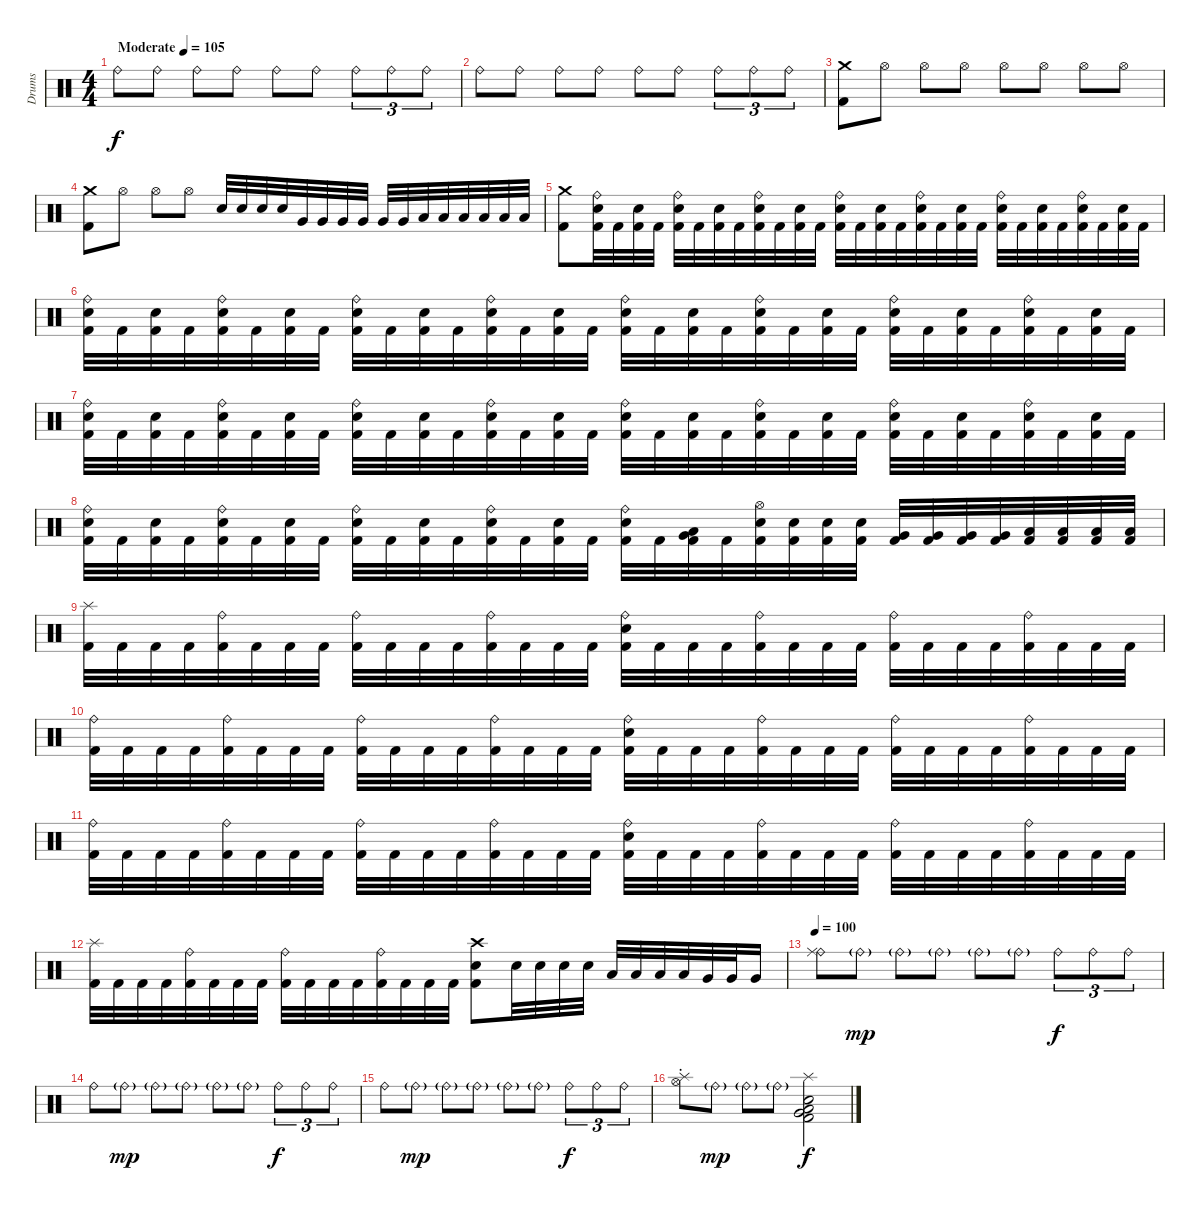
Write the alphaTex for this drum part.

\track ("Drums" "Drums") {instrument percussion}
\staff {score}
\articulation defaults
\ts (4 4)
\tempo (105 "Moderate")
\clef neutral
\ks c "Ride (bell)".8{dy f} "Ride (bell)".8 "Ride (bell)".8 "Ride (bell)".8 "Ride (bell)".8 "Ride (bell)".8 "Ride (bell)".8{tu (3 2)} "Ride (bell)".8{tu (3 2)} "Ride (bell)".8{tu (3 2)}
|
"Ride (bell)".8 "Ride (bell)".8 "Ride (bell)".8 "Ride (bell)".8 "Ride (bell)".8 "Ride (bell)".8 "Ride (bell)".8{tu (3 2)} "Ride (bell)".8{tu (3 2)} "Ride (bell)".8{tu (3 2)} |
("Crash medium (hit)" "Kick (hit) 2").8 "Hi-Hat (open)".8 "Hi-Hat (open)".8 "Hi-Hat (open)".8 "Hi-Hat (open)".8 "Hi-Hat (open)".8 "Hi-Hat (open)".8 "Hi-Hat (open)".8 |
("Crash medium (hit)" "Kick (hit) 2").8 "Hi-Hat (open)".8 "Hi-Hat (open)".8 "Hi-Hat (open)".8 "Electric Snare (hit)".32 "Electric Snare (hit)".32 "Electric Snare (hit)".32 "Electric Snare (hit)".32 "Very Low Tom (hit)".32 "Very Low Tom (hit)".32 "Very Low Tom (hit)".32 "Very Low Tom (hit)".32 "Very Low Tom (hit)".32 "Very Low Tom (hit)".32 "Low Floor Tom (hit)".32 "Low Floor Tom (hit)".32 "Low Floor Tom (hit)".32 "Low Floor Tom (hit)".32 "Low Floor Tom (hit)".32 "Low Floor Tom (hit)".32 |
("Crash medium (hit)" "Kick (hit) 2").8 ("Ride (bell)" "Electric Snare (hit)" "Kick (hit) 2").32 "Kick (hit) 2".32 ("Electric Snare (hit)" "Kick (hit) 2").32 "Kick (hit) 2".32 ("Ride (bell)" "Electric Snare (hit)" "Kick (hit) 2").32 "Kick (hit) 2".32 ("Electric Snare (hit)" "Kick (hit) 2").32 "Kick (hit) 2".32 ("Ride (bell)" "Electric Snare (hit)" "Kick (hit) 2").32 "Kick (hit) 2".32 ("Electric Snare (hit)" "Kick (hit) 2").32 "Kick (hit) 2".32 ("Ride (bell)" "Electric Snare (hit)" "Kick (hit) 2").32 "Kick (hit) 2".32 ("Electric Snare (hit)" "Kick (hit) 2").32 "Kick (hit) 2".32 ("Ride (bell)" "Electric Snare (hit)" "Kick (hit) 2").32 "Kick (hit) 2".32 ("Electric Snare (hit)" "Kick (hit) 2").32 "Kick (hit) 2".32 ("Ride (bell)" "Electric Snare (hit)" "Kick (hit) 2").32 "Kick (hit) 2".32 ("Electric Snare (hit)" "Kick (hit) 2").32 "Kick (hit) 2".32 ("Ride (bell)" "Electric Snare (hit)" "Kick (hit) 2").32 "Kick (hit) 2".32 ("Electric Snare (hit)" "Kick (hit) 2").32 "Kick (hit) 2".32 |
("Ride (bell)" "Electric Snare (hit)" "Kick (hit) 2").32 "Kick (hit) 2".32 ("Electric Snare (hit)" "Kick (hit) 2").32 "Kick (hit) 2".32 ("Ride (bell)" "Electric Snare (hit)" "Kick (hit) 2").32 "Kick (hit) 2".32 ("Electric Snare (hit)" "Kick (hit) 2").32 "Kick (hit) 2".32 ("Ride (bell)" "Electric Snare (hit)" "Kick (hit) 2").32 "Kick (hit) 2".32 ("Electric Snare (hit)" "Kick (hit) 2").32 "Kick (hit) 2".32 ("Ride (bell)" "Electric Snare (hit)" "Kick (hit) 2").32 "Kick (hit) 2".32 ("Electric Snare (hit)" "Kick (hit) 2").32 "Kick (hit) 2".32 ("Ride (bell)" "Electric Snare (hit)" "Kick (hit) 2").32 "Kick (hit) 2".32 ("Electric Snare (hit)" "Kick (hit) 2").32 "Kick (hit) 2".32 ("Ride (bell)" "Electric Snare (hit)" "Kick (hit) 2").32 "Kick (hit) 2".32 ("Electric Snare (hit)" "Kick (hit) 2").32 "Kick (hit) 2".32 ("Ride (bell)" "Electric Snare (hit)" "Kick (hit) 2").32 "Kick (hit) 2".32 ("Electric Snare (hit)" "Kick (hit) 2").32 "Kick (hit) 2".32 ("Ride (bell)" "Electric Snare (hit)" "Kick (hit) 2").32 "Kick (hit) 2".32 ("Electric Snare (hit)" "Kick (hit) 2").32 "Kick (hit) 2".32 |
("Ride (bell)" "Electric Snare (hit)" "Kick (hit) 2").32 "Kick (hit) 2".32 ("Electric Snare (hit)" "Kick (hit) 2").32 "Kick (hit) 2".32 ("Ride (bell)" "Electric Snare (hit)" "Kick (hit) 2").32 "Kick (hit) 2".32 ("Electric Snare (hit)" "Kick (hit) 2").32 "Kick (hit) 2".32 ("Ride (bell)" "Electric Snare (hit)" "Kick (hit) 2").32 "Kick (hit) 2".32 ("Electric Snare (hit)" "Kick (hit) 2").32 "Kick (hit) 2".32 ("Ride (bell)" "Electric Snare (hit)" "Kick (hit) 2").32 "Kick (hit) 2".32 ("Electric Snare (hit)" "Kick (hit) 2").32 "Kick (hit) 2".32 ("Ride (bell)" "Electric Snare (hit)" "Kick (hit) 2").32 "Kick (hit) 2".32 ("Electric Snare (hit)" "Kick (hit) 2").32 "Kick (hit) 2".32 ("Ride (bell)" "Electric Snare (hit)" "Kick (hit) 2").32 "Kick (hit) 2".32 ("Electric Snare (hit)" "Kick (hit) 2").32 "Kick (hit) 2".32 ("Ride (bell)" "Electric Snare (hit)" "Kick (hit) 2").32 "Kick (hit) 2".32 ("Electric Snare (hit)" "Kick (hit) 2").32 "Kick (hit) 2".32 ("Ride (bell)" "Electric Snare (hit)" "Kick (hit) 2").32 "Kick (hit) 2".32 ("Electric Snare (hit)" "Kick (hit) 2").32 "Kick (hit) 2".32 |
("Ride (bell)" "Electric Snare (hit)" "Kick (hit) 2").32 "Kick (hit) 2".32 ("Electric Snare (hit)" "Kick (hit) 2").32 "Kick (hit) 2".32 ("Ride (bell)" "Electric Snare (hit)" "Kick (hit) 2").32 "Kick (hit) 2".32 ("Electric Snare (hit)" "Kick (hit) 2").32 "Kick (hit) 2".32 ("Ride (bell)" "Electric Snare (hit)" "Kick (hit) 2").32 "Kick (hit) 2".32 ("Electric Snare (hit)" "Kick (hit) 2").32 "Kick (hit) 2".32 ("Ride (bell)" "Electric Snare (hit)" "Kick (hit) 2").32 "Kick (hit) 2".32 ("Electric Snare (hit)" "Kick (hit) 2").32 "Kick (hit) 2".32 ("Ride (bell)" "Electric Snare (hit)" "Kick (hit) 2").32 "Kick (hit) 2".32 ("Low Floor Tom (hit)" "Very Low Tom (hit)" "Kick (hit) 2").32 "Kick (hit) 2".32 ("Hi-Hat (open)" "Electric Snare (hit)" "Kick (hit) 2").32 ("Electric Snare (hit)" "Kick (hit) 2").32 ("Electric Snare (hit)" "Kick (hit) 2").32 ("Electric Snare (hit)" "Kick (hit) 2").32 ("Very Low Tom (hit)" "Kick (hit) 2").32 ("Very Low Tom (hit)" "Kick (hit) 2").32 ("Very Low Tom (hit)" "Kick (hit) 2").32 ("Very Low Tom (hit)" "Kick (hit) 2").32 ("Low Floor Tom (hit)" "Kick (hit) 2").32 ("Low Floor Tom (hit)" "Kick (hit) 2").32 ("Low Floor Tom (hit)" "Kick (hit) 2").32 ("Low Floor Tom (hit)" "Kick (hit) 2").32 |
("Splash (hit)" "Kick (hit) 2").32 "Kick (hit) 2".32 "Kick (hit) 2".32 "Kick (hit) 2".32 ("Ride (bell)" "Kick (hit) 2").32 "Kick (hit) 2".32 "Kick (hit) 2".32 "Kick (hit) 2".32 ("Ride (bell)" "Kick (hit) 2").32 "Kick (hit) 2".32 "Kick (hit) 2".32 "Kick (hit) 2".32 ("Ride (bell)" "Kick (hit) 2").32 "Kick (hit) 2".32 "Kick (hit) 2".32 "Kick (hit) 2".32 ("Ride (bell)" "Electric Snare (hit)" "Kick (hit) 2").32 "Kick (hit) 2".32 "Kick (hit) 2".32 "Kick (hit) 2".32 ("Ride (bell)" "Kick (hit) 2").32 "Kick (hit) 2".32 "Kick (hit) 2".32 "Kick (hit) 2".32 ("Ride (bell)" "Kick (hit) 2").32 "Kick (hit) 2".32 "Kick (hit) 2".32 "Kick (hit) 2".32 ("Ride (bell)" "Kick (hit) 2").32 "Kick (hit) 2".32 "Kick (hit) 2".32 "Kick (hit) 2".32 |
("Ride (bell)" "Kick (hit) 2").32 "Kick (hit) 2".32 "Kick (hit) 2".32 "Kick (hit) 2".32 ("Ride (bell)" "Kick (hit) 2").32 "Kick (hit) 2".32 "Kick (hit) 2".32 "Kick (hit) 2".32 ("Ride (bell)" "Kick (hit) 2").32 "Kick (hit) 2".32 "Kick (hit) 2".32 "Kick (hit) 2".32 ("Ride (bell)" "Kick (hit) 2").32 "Kick (hit) 2".32 "Kick (hit) 2".32 "Kick (hit) 2".32 ("Ride (bell)" "Electric Snare (hit)" "Kick (hit) 2").32 "Kick (hit) 2".32 "Kick (hit) 2".32 "Kick (hit) 2".32 ("Ride (bell)" "Kick (hit) 2").32 "Kick (hit) 2".32 "Kick (hit) 2".32 "Kick (hit) 2".32 ("Ride (bell)" "Kick (hit) 2").32 "Kick (hit) 2".32 "Kick (hit) 2".32 "Kick (hit) 2".32 ("Ride (bell)" "Kick (hit) 2").32 "Kick (hit) 2".32 "Kick (hit) 2".32 "Kick (hit) 2".32 |
("Ride (bell)" "Kick (hit) 2").32 "Kick (hit) 2".32 "Kick (hit) 2".32 "Kick (hit) 2".32 ("Ride (bell)" "Kick (hit) 2").32 "Kick (hit) 2".32 "Kick (hit) 2".32 "Kick (hit) 2".32 ("Ride (bell)" "Kick (hit) 2").32 "Kick (hit) 2".32 "Kick (hit) 2".32 "Kick (hit) 2".32 ("Ride (bell)" "Kick (hit) 2").32 "Kick (hit) 2".32 "Kick (hit) 2".32 "Kick (hit) 2".32 ("Ride (bell)" "Electric Snare (hit)" "Kick (hit) 2").32 "Kick (hit) 2".32 "Kick (hit) 2".32 "Kick (hit) 2".32 ("Ride (bell)" "Kick (hit) 2").32 "Kick (hit) 2".32 "Kick (hit) 2".32 "Kick (hit) 2".32 ("Ride (bell)" "Kick (hit) 2").32 "Kick (hit) 2".32 "Kick (hit) 2".32 "Kick (hit) 2".32 ("Ride (bell)" "Kick (hit) 2").32 "Kick (hit) 2".32 "Kick (hit) 2".32 "Kick (hit) 2".32 |
("Splash (hit)" "Kick (hit) 2").32 "Kick (hit) 2".32 "Kick (hit) 2".32 "Kick (hit) 2".32 ("Ride (bell)" "Kick (hit) 2").32 "Kick (hit) 2".32 "Kick (hit) 2".32 "Kick (hit) 2".32 ("Ride (bell)" "Kick (hit) 2").32 "Kick (hit) 2".32 "Kick (hit) 2".32 "Kick (hit) 2".32 ("Ride (bell)" "Kick (hit) 2").32 "Kick (hit) 2".32 "Kick (hit) 2".32 "Kick (hit) 2".32 ("Crash high (hit)" "Electric Snare (hit)" "Kick (hit) 2").8 "Electric Snare (hit)".32 "Electric Snare (hit)".32 "Electric Snare (hit)".32 "Electric Snare (hit)".32 "Low Tom (hit)".32 "Low Tom (hit)".32 "Low Tom (hit)".32 "Low Tom (hit)".32 "Very Low Tom (hit)".32 "Very Low Tom (hit)".32 "Very Low Tom (hit)".16 |
\tempo 100
("Ride (bell)" "Ride (middle)").8 "Ride (bell)"{g}.8{dy mp} "Ride (bell)"{g}.8 "Ride (bell)"{g}.8 "Ride (bell)"{g}.8 "Ride (bell)"{g}.8 "Ride (bell)".8{tu (3 2) dy f} "Ride (bell)".8{tu (3 2)} "Ride (bell)".8{tu (3 2)} |
"Ride (bell)".8 "Ride (bell)"{g}.8{dy mp} "Ride (bell)"{g}.8 "Ride (bell)"{g}.8 "Ride (bell)"{g}.8 "Ride (bell)"{g}.8 "Ride (bell)".8{tu (3 2) dy f} "Ride (bell)".8{tu (3 2)} "Ride (bell)".8{tu (3 2)} |
"Ride (bell)".8 "Ride (bell)"{g}.8{dy mp} "Ride (bell)"{g}.8 "Ride (bell)"{g}.8 "Ride (bell)"{g}.8 "Ride (bell)"{g}.8 "Ride (bell)".8{tu (3 2) dy f} "Ride (bell)".8{tu (3 2)} "Ride (bell)".8{tu (3 2)} |
("Splash (hit)"{st} "Hi-Hat (open)").8 "Ride (bell)"{g}.8{dy mp} "Ride (bell)"{g}.8 "Ride (bell)"{g}.8 ("Splash (hit)" "Electric Snare (hit)" "Very Low Tom (hit)" "Kick (hit) 2" "Low Floor Tom (hit)").2{dy f}
